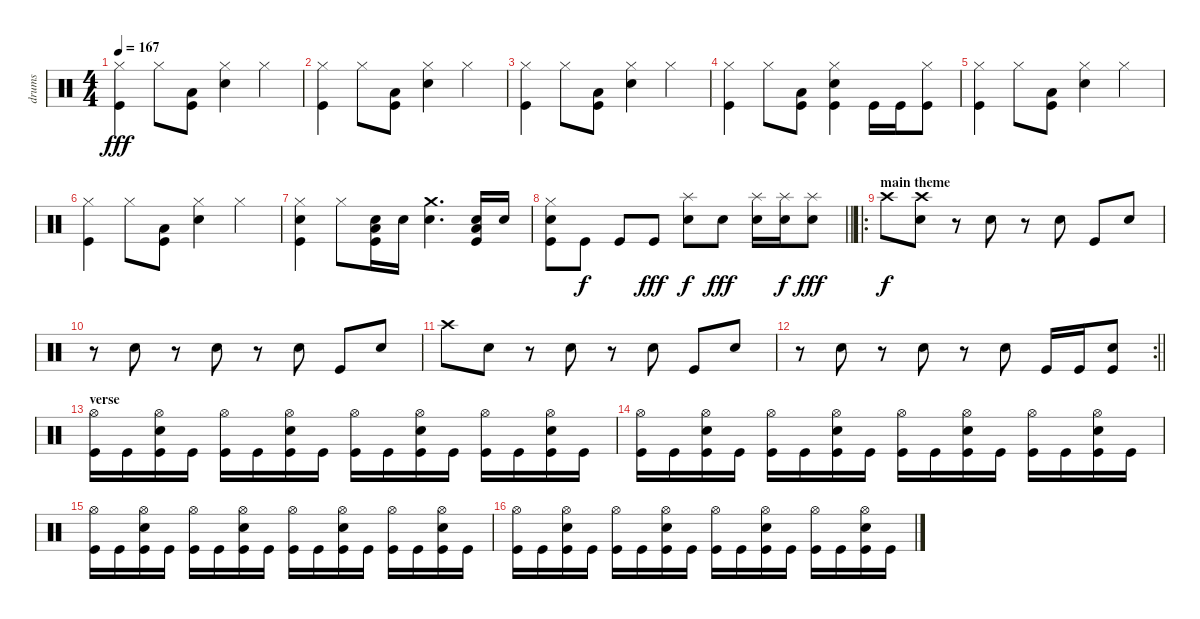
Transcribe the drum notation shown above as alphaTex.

\track ("drums" "drums") {instrument percussion}
\staff {score}
\articulation defaults
\ts (4 4)
\tempo 167
\clef neutral
\ks c
("Hi-Hat (closed)" "Kick (hit)").4{dy fff} "Hi-Hat (closed)".8 ("Low Tom (hit)" "Kick (hit)").8 ("Snare (hit) 2" "Hi-Hat (closed)").4 "Hi-Hat (closed)".4 |
("Hi-Hat (closed)" "Kick (hit)").4 "Hi-Hat (closed)".8 ("Low Tom (hit)" "Kick (hit)").8 ("Snare (hit) 2" "Hi-Hat (closed)").4 "Hi-Hat (closed)".4 |
("Hi-Hat (closed)" "Kick (hit)").4 "Hi-Hat (closed)".8 ("Low Tom (hit)" "Kick (hit)").8 ("Snare (hit) 2" "Hi-Hat (closed)").4 "Hi-Hat (closed)".4 |
("Hi-Hat (closed)" "Kick (hit)").4 "Hi-Hat (closed)".8 ("Low Tom (hit)" "Kick (hit)").8 ("Snare (hit) 2" "Hi-Hat (closed)" "Kick (hit)").4 "Kick (hit)".16 "Kick (hit)".16 ("Hi-Hat (closed)" "Kick (hit)").8 |
("Hi-Hat (closed)" "Kick (hit)").4 "Hi-Hat (closed)".8 ("Low Tom (hit)" "Kick (hit)").8 ("Snare (hit) 2" "Hi-Hat (closed)").4 "Hi-Hat (closed)".4 |
("Hi-Hat (closed)" "Kick (hit)").4 "Hi-Hat (closed)".8 ("Low Tom (hit)" "Kick (hit)").8 ("Snare (hit) 2" "Hi-Hat (closed)").4 "Hi-Hat (closed)".4 |
("Snare (hit) 2" "Hi-Hat (closed)" "Kick (hit)").4 "Hi-Hat (closed)".8 ("Snare (hit) 2" "Low Tom (hit)" "Kick (hit)").16 "Snare (hit) 2".16 ("Snare (hit) 2" "Crash medium (hit)").4{d} ("Snare (hit) 2" "Low Tom (hit)" "Kick (hit)").16 "Snare (hit) 2".16 |
\barLineRight lightlight
("Snare (hit) 2" "Hi-Hat (closed)" "Kick (hit)").8 "Kick (hit)".8{dy f} "Kick (hit)".8 "Kick (hit)".8{dy fff} ("Snare (hit) 2" "Splash (hit)").8{dy f} "Snare (hit) 2".8{dy fff} ("Snare (hit) 2" "Splash (hit)").16 ("Snare (hit) 2" "Splash (hit)").16{dy f} ("Snare (hit) 2" "Splash (hit)").8{dy fff} |
\ro
\section ("" "main theme")
"Crash high (hit)".8{dy f} ("Snare (hit) 2" "Crash high (hit)").8 r.8 "Snare (hit) 2".8 r.8 "Snare (hit) 2".8 "Kick (hit)".8 "Snare (hit) 2".8 |
r.8 "Snare (hit) 2".8 r.8 "Snare (hit) 2".8 r.8 "Snare (hit) 2".8 "Kick (hit)".8 "Snare (hit) 2".8 |
"Crash high (hit)".8 "Snare (hit) 2".8 r.8 "Snare (hit) 2".8 r.8 "Snare (hit) 2".8 "Kick (hit)".8 "Snare (hit) 2".8 |
\rc 2
\barLineRight lightlight
r.8 "Snare (hit) 2".8 r.8 "Snare (hit) 2".8 r.8 "Snare (hit) 2".8 "Kick (hit)".16 "Kick (hit)".16 ("Snare (hit) 2" "Kick (hit)").8 |
\section ("" "verse")
("Hi-Hat (open)" "Kick (hit)").16 "Kick (hit)".16 ("Snare (hit) 2" "Hi-Hat (open)" "Kick (hit)").16 "Kick (hit)".16 ("Hi-Hat (open)" "Kick (hit)").16 "Kick (hit)".16 ("Snare (hit) 2" "Hi-Hat (open)" "Kick (hit)").16 "Kick (hit)".16 ("Hi-Hat (open)" "Kick (hit)").16 "Kick (hit)".16 ("Snare (hit) 2" "Hi-Hat (open)" "Kick (hit)").16 "Kick (hit)".16 ("Hi-Hat (open)" "Kick (hit)").16 "Kick (hit)".16 ("Snare (hit) 2" "Hi-Hat (open)" "Kick (hit)").16 "Kick (hit)".16 |
("Hi-Hat (open)" "Kick (hit)").16 "Kick (hit)".16 ("Snare (hit) 2" "Hi-Hat (open)" "Kick (hit)").16 "Kick (hit)".16 ("Hi-Hat (open)" "Kick (hit)").16 "Kick (hit)".16 ("Snare (hit) 2" "Hi-Hat (open)" "Kick (hit)").16 "Kick (hit)".16 ("Hi-Hat (open)" "Kick (hit)").16 "Kick (hit)".16 ("Snare (hit) 2" "Hi-Hat (open)" "Kick (hit)").16 "Kick (hit)".16 ("Hi-Hat (open)" "Kick (hit)").16 "Kick (hit)".16 ("Snare (hit) 2" "Hi-Hat (open)" "Kick (hit)").16 "Kick (hit)".16 |
("Hi-Hat (open)" "Kick (hit)").16 "Kick (hit)".16 ("Snare (hit) 2" "Hi-Hat (open)" "Kick (hit)").16 "Kick (hit)".16 ("Hi-Hat (open)" "Kick (hit)").16 "Kick (hit)".16 ("Snare (hit) 2" "Hi-Hat (open)" "Kick (hit)").16 "Kick (hit)".16 ("Hi-Hat (open)" "Kick (hit)").16 "Kick (hit)".16 ("Snare (hit) 2" "Hi-Hat (open)" "Kick (hit)").16 "Kick (hit)".16 ("Hi-Hat (open)" "Kick (hit)").16 "Kick (hit)".16 ("Snare (hit) 2" "Hi-Hat (open)" "Kick (hit)").16 "Kick (hit)".16 |
("Hi-Hat (open)" "Kick (hit)").16 "Kick (hit)".16 ("Snare (hit) 2" "Hi-Hat (open)" "Kick (hit)").16 "Kick (hit)".16 ("Hi-Hat (open)" "Kick (hit)").16 "Kick (hit)".16 ("Snare (hit) 2" "Hi-Hat (open)" "Kick (hit)").16 "Kick (hit)".16 ("Hi-Hat (open)" "Kick (hit)").16 "Kick (hit)".16 ("Snare (hit) 2" "Hi-Hat (open)" "Kick (hit)").16 "Kick (hit)".16 ("Hi-Hat (open)" "Kick (hit)").16 "Kick (hit)".16 ("Snare (hit) 2" "Hi-Hat (open)" "Kick (hit)").16 "Kick (hit)".16
